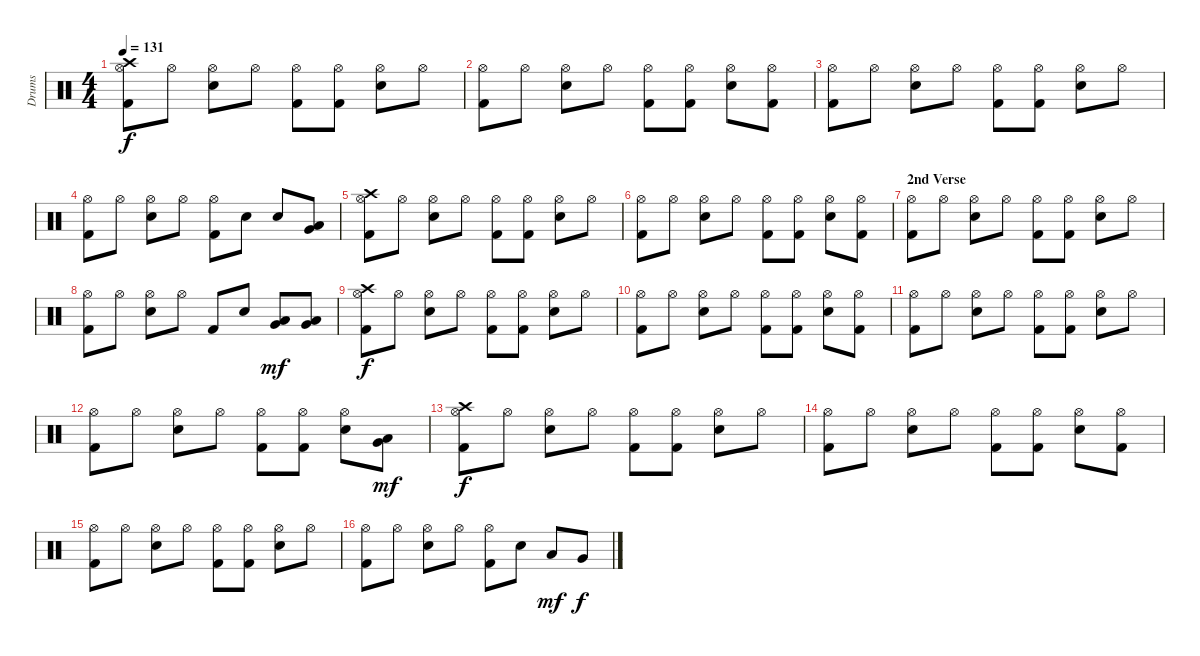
\track ("Drums" "Drums") {instrument percussion}
\staff {score}
\articulation defaults
\ts (4 4)
\tempo 131
\clef neutral
\ks c
("Kick (hit) 2" "Crash high (hit)" "Hi-Hat (open)").8{dy f} "Hi-Hat (open)".8 ("Electric Snare (hit)" "Hi-Hat (open)").8 "Hi-Hat (open)".8 ("Kick (hit) 2" "Hi-Hat (open)").8 ("Kick (hit) 2" "Hi-Hat (open)").8 ("Electric Snare (hit)" "Hi-Hat (open)").8 "Hi-Hat (open)".8 |
("Kick (hit) 2" "Hi-Hat (open)").8 "Hi-Hat (open)".8 ("Electric Snare (hit)" "Hi-Hat (open)").8 "Hi-Hat (open)".8 ("Kick (hit) 2" "Hi-Hat (open)").8 ("Kick (hit) 2" "Hi-Hat (open)").8 ("Electric Snare (hit)" "Hi-Hat (open)").8 ("Kick (hit) 2" "Hi-Hat (open)").8 |
("Kick (hit) 2" "Hi-Hat (open)").8 "Hi-Hat (open)".8 ("Electric Snare (hit)" "Hi-Hat (open)").8 "Hi-Hat (open)".8 ("Kick (hit) 2" "Hi-Hat (open)").8 ("Kick (hit) 2" "Hi-Hat (open)").8 ("Electric Snare (hit)" "Hi-Hat (open)").8 "Hi-Hat (open)".8 |
("Kick (hit) 2" "Hi-Hat (open)").8 "Hi-Hat (open)".8 ("Electric Snare (hit)" "Hi-Hat (open)").8 "Hi-Hat (open)".8 ("Kick (hit) 2" "Hi-Hat (open)").8 "Electric Snare (hit)".8 "Electric Snare (hit)".8 ("Low Tom (hit)" "Very Low Tom (hit)").8 |
("Kick (hit) 2" "Crash high (hit)" "Hi-Hat (open)").8 "Hi-Hat (open)".8 ("Electric Snare (hit)" "Hi-Hat (open)").8 "Hi-Hat (open)".8 ("Kick (hit) 2" "Hi-Hat (open)").8 ("Kick (hit) 2" "Hi-Hat (open)").8 ("Electric Snare (hit)" "Hi-Hat (open)").8 "Hi-Hat (open)".8 |
("Kick (hit) 2" "Hi-Hat (open)").8 "Hi-Hat (open)".8 ("Electric Snare (hit)" "Hi-Hat (open)").8 "Hi-Hat (open)".8 ("Kick (hit) 2" "Hi-Hat (open)").8 ("Kick (hit) 2" "Hi-Hat (open)").8 ("Electric Snare (hit)" "Hi-Hat (open)").8 ("Kick (hit) 2" "Hi-Hat (open)").8 |
\section ("" "2nd Verse")
("Kick (hit) 2" "Hi-Hat (open)").8 "Hi-Hat (open)".8 ("Electric Snare (hit)" "Hi-Hat (open)").8 "Hi-Hat (open)".8 ("Kick (hit) 2" "Hi-Hat (open)").8 ("Kick (hit) 2" "Hi-Hat (open)").8 ("Electric Snare (hit)" "Hi-Hat (open)").8 "Hi-Hat (open)".8 |
("Kick (hit) 2" "Hi-Hat (open)").8 "Hi-Hat (open)".8 ("Electric Snare (hit)" "Hi-Hat (open)").8 "Hi-Hat (open)".8 "Kick (hit) 2".8 "Electric Snare (hit)".8 ("Low Tom (hit)" "Very Low Tom (hit)").8{dy mf} ("Low Tom (hit)" "Very Low Tom (hit)").8 |
("Kick (hit) 2" "Crash high (hit)" "Hi-Hat (open)").8{dy f} "Hi-Hat (open)".8 ("Electric Snare (hit)" "Hi-Hat (open)").8 "Hi-Hat (open)".8 ("Kick (hit) 2" "Hi-Hat (open)").8 ("Kick (hit) 2" "Hi-Hat (open)").8 ("Electric Snare (hit)" "Hi-Hat (open)").8 "Hi-Hat (open)".8 |
("Kick (hit) 2" "Hi-Hat (open)").8 "Hi-Hat (open)".8 ("Electric Snare (hit)" "Hi-Hat (open)").8 "Hi-Hat (open)".8 ("Kick (hit) 2" "Hi-Hat (open)").8 ("Kick (hit) 2" "Hi-Hat (open)").8 ("Electric Snare (hit)" "Hi-Hat (open)").8 ("Kick (hit) 2" "Hi-Hat (open)").8 |
("Kick (hit) 2" "Hi-Hat (open)").8 "Hi-Hat (open)".8 ("Electric Snare (hit)" "Hi-Hat (open)").8 "Hi-Hat (open)".8 ("Kick (hit) 2" "Hi-Hat (open)").8 ("Kick (hit) 2" "Hi-Hat (open)").8 ("Electric Snare (hit)" "Hi-Hat (open)").8 "Hi-Hat (open)".8 |
("Kick (hit) 2" "Hi-Hat (open)").8 "Hi-Hat (open)".8 ("Electric Snare (hit)" "Hi-Hat (open)").8 "Hi-Hat (open)".8 ("Kick (hit) 2" "Hi-Hat (open)").8 ("Kick (hit) 2" "Hi-Hat (open)").8 ("Electric Snare (hit)" "Hi-Hat (open)").8 ("Low Tom (hit)" "Very Low Tom (hit)").8{dy mf} |
("Kick (hit) 2" "Crash high (hit)" "Hi-Hat (open)").8{dy f} "Hi-Hat (open)".8 ("Electric Snare (hit)" "Hi-Hat (open)").8 "Hi-Hat (open)".8 ("Kick (hit) 2" "Hi-Hat (open)").8 ("Kick (hit) 2" "Hi-Hat (open)").8 ("Electric Snare (hit)" "Hi-Hat (open)").8 "Hi-Hat (open)".8 |
("Kick (hit) 2" "Hi-Hat (open)").8 "Hi-Hat (open)".8 ("Electric Snare (hit)" "Hi-Hat (open)").8 "Hi-Hat (open)".8 ("Kick (hit) 2" "Hi-Hat (open)").8 ("Kick (hit) 2" "Hi-Hat (open)").8 ("Electric Snare (hit)" "Hi-Hat (open)").8 ("Kick (hit) 2" "Hi-Hat (open)").8 |
("Kick (hit) 2" "Hi-Hat (open)").8 "Hi-Hat (open)".8 ("Electric Snare (hit)" "Hi-Hat (open)").8 "Hi-Hat (open)".8 ("Kick (hit) 2" "Hi-Hat (open)").8 ("Kick (hit) 2" "Hi-Hat (open)").8 ("Electric Snare (hit)" "Hi-Hat (open)").8 "Hi-Hat (open)".8 |
("Kick (hit) 2" "Hi-Hat (open)").8 "Hi-Hat (open)".8 ("Electric Snare (hit)" "Hi-Hat (open)").8 "Hi-Hat (open)".8 ("Kick (hit) 2" "Hi-Hat (open)").8 "Electric Snare (hit)".8 "Low Tom (hit)".8{dy mf} "Very Low Tom (hit)".8{dy f}
